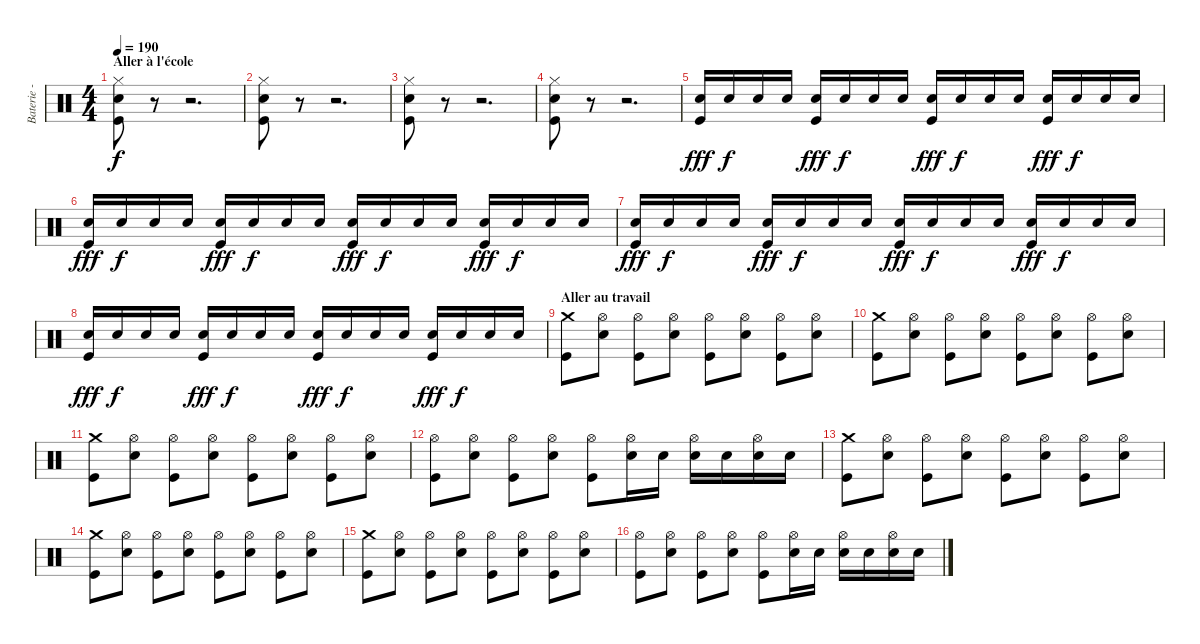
\track ("Baterie - Alex" "Baterie - ") {instrument percussion}
\staff {score}
\articulation defaults
\ts (4 4)
\section ("" "Aller à l'école")
\tempo 190
\clef neutral
\ks c
("Hi-Hat (closed)" "Electric Snare (hit)" "Kick (hit)").8{dy f} r.8 r.2{d} |
("Hi-Hat (closed)" "Electric Snare (hit)" "Kick (hit)").8 r.8 r.2{d} |
("Hi-Hat (closed)" "Electric Snare (hit)" "Kick (hit)").8 r.8 r.2{d} |
("Hi-Hat (closed)" "Electric Snare (hit)" "Kick (hit)").8 r.8 r.2{d volume 3} |
("Electric Snare (hit)" "Kick (hit)").16{dy fff volume 9} "Electric Snare (hit)".16{dy f} "Electric Snare (hit)".16 "Electric Snare (hit)".16 ("Electric Snare (hit)" "Kick (hit)").16{dy fff} "Electric Snare (hit)".16{dy f} "Electric Snare (hit)".16 "Electric Snare (hit)".16 ("Electric Snare (hit)" "Kick (hit)").16{dy fff} "Electric Snare (hit)".16{dy f} "Electric Snare (hit)".16 "Electric Snare (hit)".16 ("Electric Snare (hit)" "Kick (hit)").16{dy fff} "Electric Snare (hit)".16{dy f} "Electric Snare (hit)".16 "Electric Snare (hit)".16 |
("Electric Snare (hit)" "Kick (hit)").16{dy fff} "Electric Snare (hit)".16{dy f} "Electric Snare (hit)".16 "Electric Snare (hit)".16 ("Electric Snare (hit)" "Kick (hit)").16{dy fff} "Electric Snare (hit)".16{dy f} "Electric Snare (hit)".16 "Electric Snare (hit)".16 ("Electric Snare (hit)" "Kick (hit)").16{dy fff} "Electric Snare (hit)".16{dy f} "Electric Snare (hit)".16 "Electric Snare (hit)".16 ("Electric Snare (hit)" "Kick (hit)").16{dy fff} "Electric Snare (hit)".16{dy f} "Electric Snare (hit)".16 "Electric Snare (hit)".16 |
("Electric Snare (hit)" "Kick (hit)").16{dy fff} "Electric Snare (hit)".16{dy f} "Electric Snare (hit)".16 "Electric Snare (hit)".16 ("Electric Snare (hit)" "Kick (hit)").16{dy fff} "Electric Snare (hit)".16{dy f} "Electric Snare (hit)".16 "Electric Snare (hit)".16 ("Electric Snare (hit)" "Kick (hit)").16{dy fff} "Electric Snare (hit)".16{dy f} "Electric Snare (hit)".16 "Electric Snare (hit)".16 ("Electric Snare (hit)" "Kick (hit)").16{dy fff} "Electric Snare (hit)".16{dy f} "Electric Snare (hit)".16 "Electric Snare (hit)".16 |
("Electric Snare (hit)" "Kick (hit)").16{dy fff} "Electric Snare (hit)".16{dy f} "Electric Snare (hit)".16 "Electric Snare (hit)".16 ("Electric Snare (hit)" "Kick (hit)").16{dy fff} "Electric Snare (hit)".16{dy f} "Electric Snare (hit)".16 "Electric Snare (hit)".16 ("Electric Snare (hit)" "Kick (hit)").16{dy fff} "Electric Snare (hit)".16{dy f} "Electric Snare (hit)".16 "Electric Snare (hit)".16 ("Electric Snare (hit)" "Kick (hit)").16{dy fff} "Electric Snare (hit)".16{dy f} "Electric Snare (hit)".16 "Electric Snare (hit)".16 |
\section ("" "Aller au travail")
("Crash medium (hit)" "Kick (hit)").8 ("Hi-Hat (open)" "Electric Snare (hit)").8 ("Hi-Hat (open)" "Kick (hit)").8 ("Hi-Hat (open)" "Electric Snare (hit)").8 ("Hi-Hat (open)" "Kick (hit)").8 ("Hi-Hat (open)" "Electric Snare (hit)").8 ("Hi-Hat (open)" "Kick (hit)").8 ("Hi-Hat (open)" "Electric Snare (hit)").8 |
("Crash medium (hit)" "Kick (hit)").8 ("Hi-Hat (open)" "Electric Snare (hit)").8 ("Hi-Hat (open)" "Kick (hit)").8 ("Hi-Hat (open)" "Electric Snare (hit)").8 ("Hi-Hat (open)" "Kick (hit)").8 ("Hi-Hat (open)" "Electric Snare (hit)").8 ("Hi-Hat (open)" "Kick (hit)").8 ("Hi-Hat (open)" "Electric Snare (hit)").8 |
("Crash medium (hit)" "Kick (hit)").8 ("Hi-Hat (open)" "Electric Snare (hit)").8 ("Hi-Hat (open)" "Kick (hit)").8 ("Hi-Hat (open)" "Electric Snare (hit)").8 ("Hi-Hat (open)" "Kick (hit)").8 ("Hi-Hat (open)" "Electric Snare (hit)").8 ("Hi-Hat (open)" "Kick (hit)").8 ("Hi-Hat (open)" "Electric Snare (hit)").8 |
("Hi-Hat (open)" "Kick (hit)").8 ("Hi-Hat (open)" "Electric Snare (hit)").8 ("Hi-Hat (open)" "Kick (hit)").8 ("Hi-Hat (open)" "Electric Snare (hit)").8 ("Hi-Hat (open)" "Kick (hit)").8 ("Hi-Hat (open)" "Electric Snare (hit)").16 "Electric Snare (hit)".16 ("Hi-Hat (open)" "Electric Snare (hit)").16 "Electric Snare (hit)".16 ("Hi-Hat (open)" "Electric Snare (hit)").16 "Electric Snare (hit)".16 |
("Crash medium (hit)" "Kick (hit)").8 ("Hi-Hat (open)" "Electric Snare (hit)").8 ("Hi-Hat (open)" "Kick (hit)").8 ("Hi-Hat (open)" "Electric Snare (hit)").8 ("Hi-Hat (open)" "Kick (hit)").8 ("Hi-Hat (open)" "Electric Snare (hit)").8 ("Hi-Hat (open)" "Kick (hit)").8 ("Hi-Hat (open)" "Electric Snare (hit)").8 |
("Crash medium (hit)" "Kick (hit)").8 ("Hi-Hat (open)" "Electric Snare (hit)").8 ("Hi-Hat (open)" "Kick (hit)").8 ("Hi-Hat (open)" "Electric Snare (hit)").8 ("Hi-Hat (open)" "Kick (hit)").8 ("Hi-Hat (open)" "Electric Snare (hit)").8 ("Hi-Hat (open)" "Kick (hit)").8 ("Hi-Hat (open)" "Electric Snare (hit)").8 |
("Crash medium (hit)" "Kick (hit)").8 ("Hi-Hat (open)" "Electric Snare (hit)").8 ("Hi-Hat (open)" "Kick (hit)").8 ("Hi-Hat (open)" "Electric Snare (hit)").8 ("Hi-Hat (open)" "Kick (hit)").8 ("Hi-Hat (open)" "Electric Snare (hit)").8 ("Hi-Hat (open)" "Kick (hit)").8 ("Hi-Hat (open)" "Electric Snare (hit)").8 |
("Hi-Hat (open)" "Kick (hit)").8 ("Hi-Hat (open)" "Electric Snare (hit)").8 ("Hi-Hat (open)" "Kick (hit)").8 ("Hi-Hat (open)" "Electric Snare (hit)").8 ("Hi-Hat (open)" "Kick (hit)").8 ("Hi-Hat (open)" "Electric Snare (hit)").16 "Electric Snare (hit)".16 ("Hi-Hat (open)" "Electric Snare (hit)").16 "Electric Snare (hit)".16 ("Hi-Hat (open)" "Electric Snare (hit)").16 "Electric Snare (hit)".16
